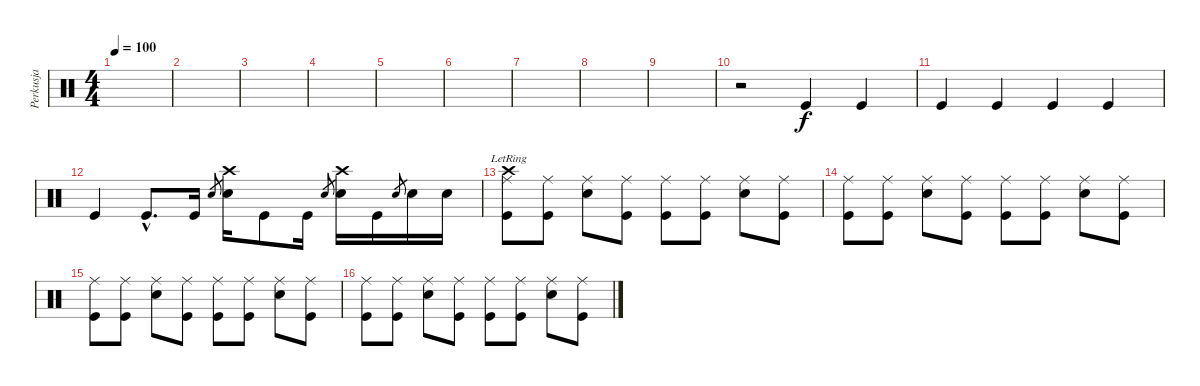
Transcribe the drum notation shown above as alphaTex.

\track ("Perkusja" "Perkusja") {instrument percussion}
\staff {score}
\articulation defaults
\ts (4 4)
\tempo 100
\clef neutral
\ks c
|
|
|
|
|
|
|
|
|
r.2 "Kick (hit)".4 "Kick (hit)".4 |
"Kick (hit)".4 "Kick (hit)".4 "Kick (hit)".4 "Kick (hit)".4 |
"Kick (hit)".4 "Kick (hit)"{hac}.8{d} "Kick (hit)".16 "Electric Snare (hit)".8{gr} ("Crash high (hit)" "Electric Snare (hit)").16 "Kick (hit)".8 "Kick (hit)".16 "Electric Snare (hit)".8{gr} ("Crash high (hit)" "Electric Snare (hit)").16 "Kick (hit)".16 "Electric Snare (hit)".8{gr} "Electric Snare (hit)".16 "Electric Snare (hit)".16 |
("Ride (middle)" "Crash high (hit)"{lr} "Kick (hit)").8 ("Ride (middle)" "Kick (hit)").8 ("Ride (middle)" "Electric Snare (hit)").8 ("Ride (middle)" "Kick (hit)").8 ("Ride (middle)" "Kick (hit)").8 ("Ride (middle)" "Kick (hit)").8 ("Ride (middle)" "Electric Snare (hit)").8 ("Ride (middle)" "Kick (hit)").8 |
("Ride (middle)" "Kick (hit)").8 ("Ride (middle)" "Kick (hit)").8 ("Ride (middle)" "Electric Snare (hit)").8 ("Ride (middle)" "Kick (hit)").8 ("Ride (middle)" "Kick (hit)").8 ("Ride (middle)" "Kick (hit)").8 ("Ride (middle)" "Electric Snare (hit)").8 ("Ride (middle)" "Kick (hit)").8 |
("Ride (middle)" "Kick (hit)").8 ("Ride (middle)" "Kick (hit)").8 ("Ride (middle)" "Electric Snare (hit)").8 ("Ride (middle)" "Kick (hit)").8 ("Ride (middle)" "Kick (hit)").8 ("Ride (middle)" "Kick (hit)").8 ("Ride (middle)" "Electric Snare (hit)").8 ("Ride (middle)" "Kick (hit)").8 |
("Ride (middle)" "Kick (hit)").8 ("Ride (middle)" "Kick (hit)").8 ("Ride (middle)" "Electric Snare (hit)").8 ("Ride (middle)" "Kick (hit)").8 ("Ride (middle)" "Kick (hit)").8 ("Ride (middle)" "Kick (hit)").8 ("Ride (middle)" "Electric Snare (hit)").8 ("Ride (middle)" "Kick (hit)").8
